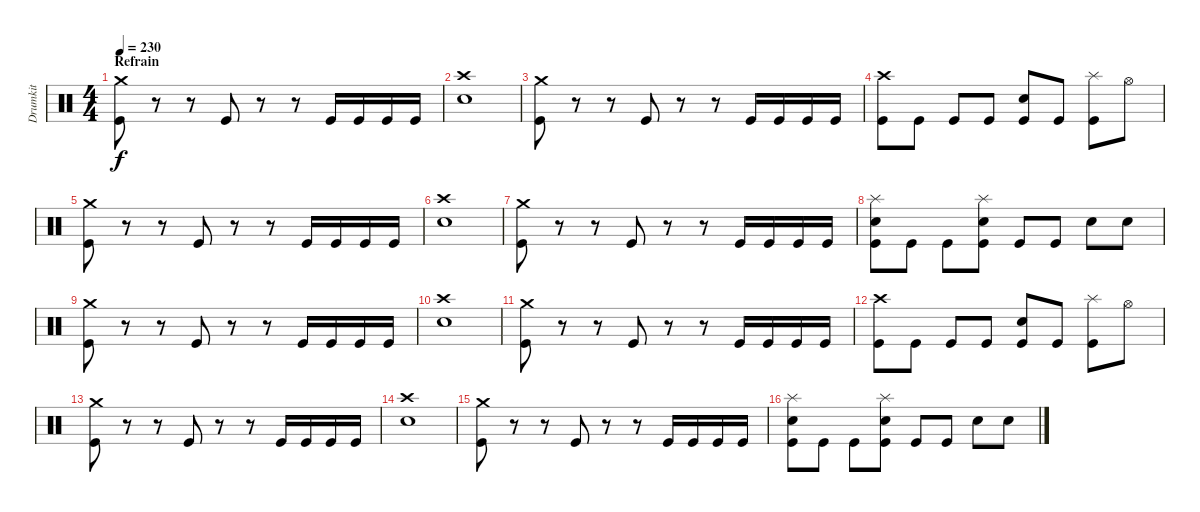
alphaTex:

\track ("Drumkit" "Drumkit") {instrument percussion}
\staff {score}
\articulation defaults
\ts (4 4)
\section ("" "Refrain")
\tempo 230
\clef neutral
\ks c
("Crash medium (hit)" "Kick (hit)").8{dy f} r.8 r.8 "Kick (hit)".8 r.8 r.8 "Kick (hit)".16 "Kick (hit)".16 "Kick (hit)".16 "Kick (hit)".16 |
("Crash high (hit)" "Snare (hit) 2").1 |
("Crash medium (hit)" "Kick (hit)").8 r.8 r.8 "Kick (hit)".8 r.8 r.8 "Kick (hit)".16 "Kick (hit)".16 "Kick (hit)".16 "Kick (hit)".16 |
("Crash high (hit)" "Kick (hit)").8 "Kick (hit)".8 "Kick (hit)".8 "Kick (hit)".8 ("Snare (hit) 2" "Kick (hit)").8 "Kick (hit)".8 ("Splash (hit)" "Kick (hit)").8 "Hi-Hat (open)".8 |
("Crash medium (hit)" "Kick (hit)").8 r.8 r.8 "Kick (hit)".8 r.8 r.8 "Kick (hit)".16 "Kick (hit)".16 "Kick (hit)".16 "Kick (hit)".16 |
("Crash high (hit)" "Snare (hit) 2").1 |
("Crash medium (hit)" "Kick (hit)").8 r.8 r.8 "Kick (hit)".8 r.8 r.8 "Kick (hit)".16 "Kick (hit)".16 "Kick (hit)".16 "Kick (hit)".16 |
("Splash (hit)" "Snare (hit) 2" "Kick (hit)").8 "Kick (hit)".8 "Kick (hit)".8 ("Splash (hit)" "Snare (hit) 2" "Kick (hit)").8 "Kick (hit)".8 "Kick (hit)".8 "Snare (hit) 2".8 "Snare (hit) 2".8 |
("Crash medium (hit)" "Kick (hit)").8 r.8 r.8 "Kick (hit)".8 r.8 r.8 "Kick (hit)".16 "Kick (hit)".16 "Kick (hit)".16 "Kick (hit)".16 |
("Crash high (hit)" "Snare (hit) 2").1 |
("Crash medium (hit)" "Kick (hit)").8 r.8 r.8 "Kick (hit)".8 r.8 r.8 "Kick (hit)".16 "Kick (hit)".16 "Kick (hit)".16 "Kick (hit)".16 |
("Crash high (hit)" "Kick (hit)").8 "Kick (hit)".8 "Kick (hit)".8 "Kick (hit)".8 ("Snare (hit) 2" "Kick (hit)").8 "Kick (hit)".8 ("Splash (hit)" "Kick (hit)").8 "Hi-Hat (open)".8 |
("Crash medium (hit)" "Kick (hit)").8 r.8 r.8 "Kick (hit)".8 r.8 r.8 "Kick (hit)".16 "Kick (hit)".16 "Kick (hit)".16 "Kick (hit)".16 |
("Crash high (hit)" "Snare (hit) 2").1 |
("Crash medium (hit)" "Kick (hit)").8 r.8 r.8 "Kick (hit)".8 r.8 r.8 "Kick (hit)".16 "Kick (hit)".16 "Kick (hit)".16 "Kick (hit)".16 |
("Splash (hit)" "Snare (hit) 2" "Kick (hit)").8 "Kick (hit)".8 "Kick (hit)".8 ("Splash (hit)" "Snare (hit) 2" "Kick (hit)").8 "Kick (hit)".8 "Kick (hit)".8 "Snare (hit) 2".8 "Snare (hit) 2".8
